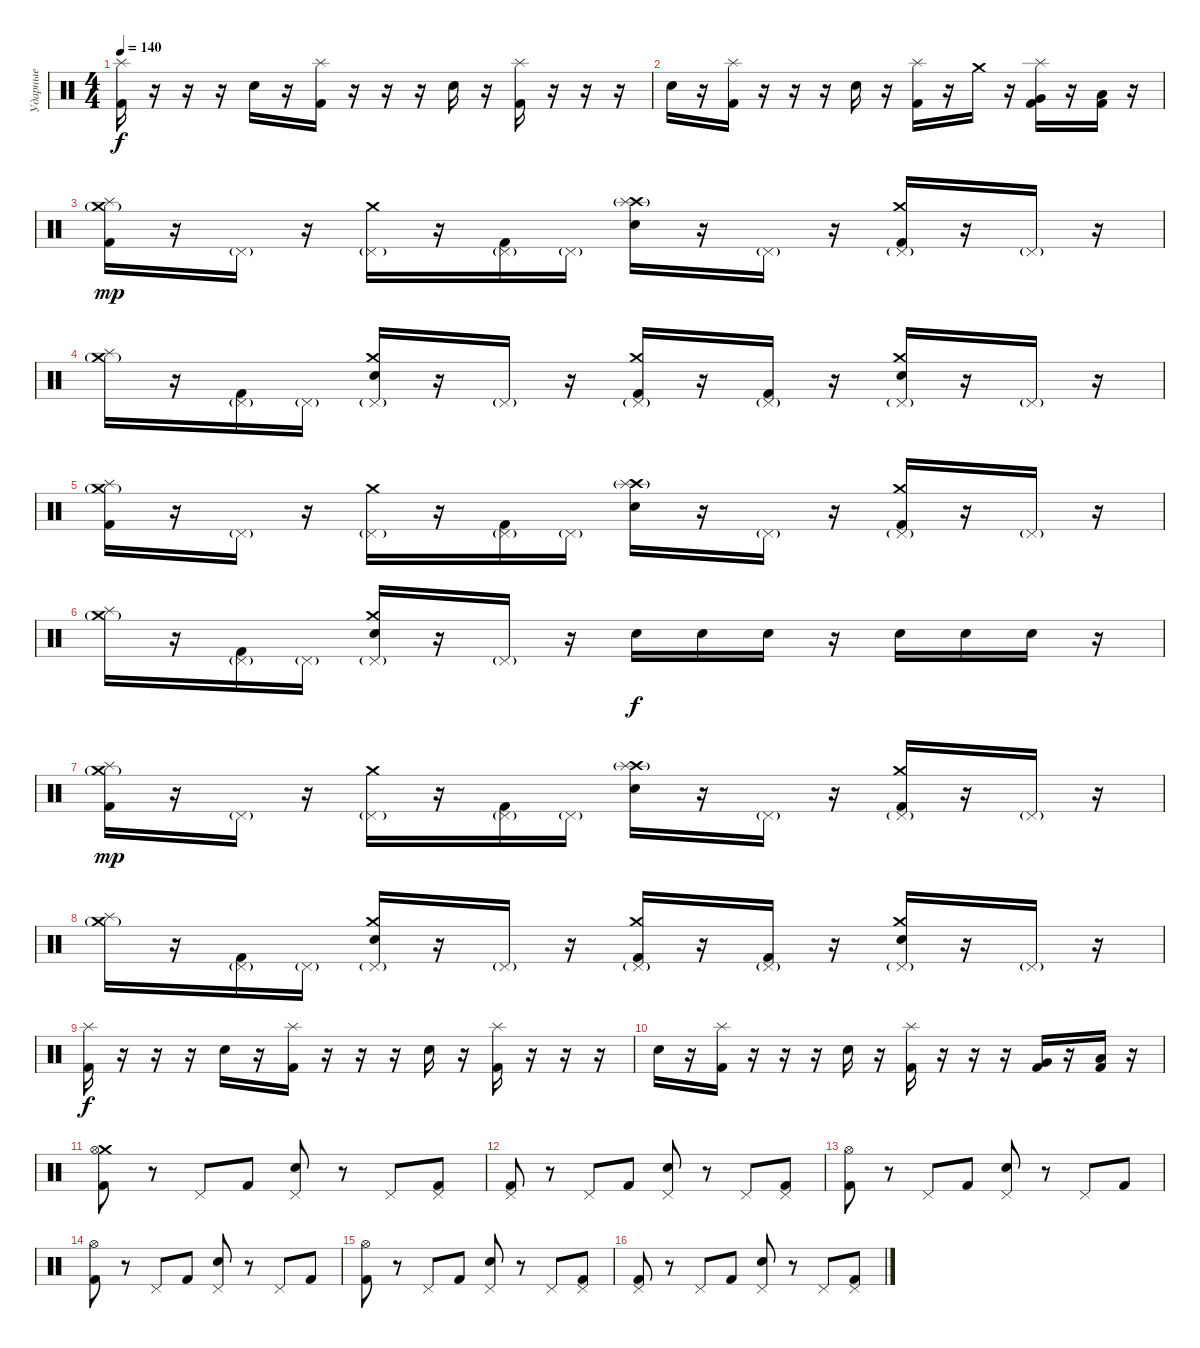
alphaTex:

\track ("Ударные" "Ударные") {instrument percussion}
\staff {score}
\articulation defaults
\ts (4 4)
\tempo 140
\clef neutral
\ks c
("Splash (hit)" "Kick (hit) 2").16{dy f} r.16 r.16 r.16 "Snare (hit) 2".16 r.16 ("Splash (hit)" "Kick (hit) 2").16 r.16 r.16 r.16 "Snare (hit) 2".16 r.16 ("Splash (hit)" "Kick (hit) 2").16 r.16 r.16 r.16 |
"Snare (hit) 2".16 r.16 ("Splash (hit)" "Kick (hit) 2").16 r.16 r.16 r.16 "Snare (hit) 2".16 r.16 ("Splash (hit)" "Kick (hit) 2").16 r.16 "Crash medium (hit)".16 r.16 ("Splash (hit)" "Very Low Tom (hit)" "Kick (hit) 2").16 r.16 ("Low Floor Tom (hit)" "Kick (hit) 2").16 r.16 |
("Crash medium (hit)"{g} "Splash (hit)" "Kick (hit) 2").16{dy mp} r.16 "Pedal Hi-Hat (hit)"{g}.16 r.16 ("Crash medium (hit)" "Pedal Hi-Hat (hit)"{g}).16 r.16 ("Pedal Hi-Hat (hit)"{g} "Kick (hit) 2").16 "Pedal Hi-Hat (hit)"{g}.16 ("Crash high (hit)"{g} "Splash (hit)" "Snare (hit) 2").16 r.16 "Pedal Hi-Hat (hit)"{g}.16 r.16 ("Crash medium (hit)" "Pedal Hi-Hat (hit)"{g} "Kick (hit) 2").16 r.16 "Pedal Hi-Hat (hit)"{g}.16 r.16 |
("Crash medium (hit)"{g} "Splash (hit)").16 r.16 ("Pedal Hi-Hat (hit)"{g} "Kick (hit) 2").16 "Pedal Hi-Hat (hit)"{g}.16 ("Crash medium (hit)" "Pedal Hi-Hat (hit)"{g} "Snare (hit) 2").16 r.16 "Pedal Hi-Hat (hit)"{g}.16 r.16 ("Crash medium (hit)" "Pedal Hi-Hat (hit)"{g} "Kick (hit) 2").16 r.16 ("Pedal Hi-Hat (hit)"{g} "Kick (hit) 2").16 r.16 ("Crash medium (hit)" "Pedal Hi-Hat (hit)"{g} "Snare (hit) 2").16 r.16 "Pedal Hi-Hat (hit)"{g}.16 r.16 |
("Crash medium (hit)"{g} "Splash (hit)" "Kick (hit) 2").16 r.16 "Pedal Hi-Hat (hit)"{g}.16 r.16 ("Crash medium (hit)" "Pedal Hi-Hat (hit)"{g}).16 r.16 ("Pedal Hi-Hat (hit)"{g} "Kick (hit) 2").16 "Pedal Hi-Hat (hit)"{g}.16 ("Crash high (hit)"{g} "Splash (hit)" "Snare (hit) 2").16 r.16 "Pedal Hi-Hat (hit)"{g}.16 r.16 ("Crash medium (hit)" "Pedal Hi-Hat (hit)"{g} "Kick (hit) 2").16 r.16 "Pedal Hi-Hat (hit)"{g}.16 r.16 |
("Crash medium (hit)"{g} "Splash (hit)").16 r.16 ("Pedal Hi-Hat (hit)"{g} "Kick (hit) 2").16 "Pedal Hi-Hat (hit)"{g}.16 ("Crash medium (hit)" "Pedal Hi-Hat (hit)"{g} "Snare (hit) 2").16 r.16 "Pedal Hi-Hat (hit)"{g}.16 r.16 "Snare (hit) 2".16{dy f} "Snare (hit) 2".16 "Snare (hit) 2".16 r.16 "Snare (hit) 2".16 "Snare (hit) 2".16 "Snare (hit) 2".16 r.16 |
("Crash medium (hit)"{g} "Splash (hit)" "Kick (hit) 2").16{dy mp} r.16 "Pedal Hi-Hat (hit)"{g}.16 r.16 ("Crash medium (hit)" "Pedal Hi-Hat (hit)"{g}).16 r.16 ("Pedal Hi-Hat (hit)"{g} "Kick (hit) 2").16 "Pedal Hi-Hat (hit)"{g}.16 ("Crash high (hit)"{g} "Splash (hit)" "Snare (hit) 2").16 r.16 "Pedal Hi-Hat (hit)"{g}.16 r.16 ("Crash medium (hit)" "Pedal Hi-Hat (hit)"{g} "Kick (hit) 2").16 r.16 "Pedal Hi-Hat (hit)"{g}.16 r.16 |
("Crash medium (hit)"{g} "Splash (hit)").16 r.16 ("Pedal Hi-Hat (hit)"{g} "Kick (hit) 2").16 "Pedal Hi-Hat (hit)"{g}.16 ("Crash medium (hit)" "Pedal Hi-Hat (hit)"{g} "Snare (hit) 2").16 r.16 "Pedal Hi-Hat (hit)"{g}.16 r.16 ("Crash medium (hit)" "Pedal Hi-Hat (hit)"{g} "Kick (hit) 2").16 r.16 ("Pedal Hi-Hat (hit)"{g} "Kick (hit) 2").16 r.16 ("Crash medium (hit)" "Pedal Hi-Hat (hit)"{g} "Snare (hit) 2").16 r.16 "Pedal Hi-Hat (hit)"{g}.16 r.16 |
("Splash (hit)" "Kick (hit) 2").16{dy f} r.16 r.16 r.16 "Snare (hit) 2".16 r.16 ("Splash (hit)" "Kick (hit) 2").16 r.16 r.16 r.16 "Snare (hit) 2".16 r.16 ("Splash (hit)" "Kick (hit) 2").16 r.16 r.16 r.16 |
"Snare (hit) 2".16 r.16 ("Splash (hit)" "Kick (hit) 2").16 r.16 r.16 r.16 "Snare (hit) 2".16 r.16 ("Splash (hit)" "Kick (hit) 2").16 r.16 r.16 r.16 ("Very Low Tom (hit)" "Kick (hit) 2").16 r.16 ("Low Floor Tom (hit)" "Kick (hit) 2").16 r.16 |
("Crash medium (hit)" "Hi-Hat (open)" "Kick (hit) 2").8 r.8 "Pedal Hi-Hat (hit)".8 "Kick (hit) 2".8 ("Pedal Hi-Hat (hit)" "Snare (hit) 2").8 r.8 "Pedal Hi-Hat (hit)".8 ("Pedal Hi-Hat (hit)" "Kick (hit) 2").8 |
("Pedal Hi-Hat (hit)" "Kick (hit) 2").8 r.8 "Pedal Hi-Hat (hit)".8 "Kick (hit) 2".8 ("Pedal Hi-Hat (hit)" "Snare (hit) 2").8 r.8 "Pedal Hi-Hat (hit)".8 ("Pedal Hi-Hat (hit)" "Kick (hit) 2").8 |
("Hi-Hat (open)" "Kick (hit) 2").8 r.8 "Pedal Hi-Hat (hit)".8 "Kick (hit) 2".8 ("Pedal Hi-Hat (hit)" "Snare (hit) 2").8 r.8 "Pedal Hi-Hat (hit)".8 "Kick (hit) 2".8 |
("Hi-Hat (open)" "Kick (hit) 2").8 r.8 "Pedal Hi-Hat (hit)".8 "Kick (hit) 2".8 ("Pedal Hi-Hat (hit)" "Snare (hit) 2").8 r.8 "Pedal Hi-Hat (hit)".8 "Kick (hit) 2".8 |
("Hi-Hat (open)" "Kick (hit) 2").8 r.8 "Pedal Hi-Hat (hit)".8 "Kick (hit) 2".8 ("Pedal Hi-Hat (hit)" "Snare (hit) 2").8 r.8 "Pedal Hi-Hat (hit)".8 ("Pedal Hi-Hat (hit)" "Kick (hit) 2").8 |
("Pedal Hi-Hat (hit)" "Kick (hit) 2").8 r.8 "Pedal Hi-Hat (hit)".8 "Kick (hit) 2".8 ("Pedal Hi-Hat (hit)" "Snare (hit) 2").8 r.8 "Pedal Hi-Hat (hit)".8 ("Pedal Hi-Hat (hit)" "Kick (hit) 2").8
